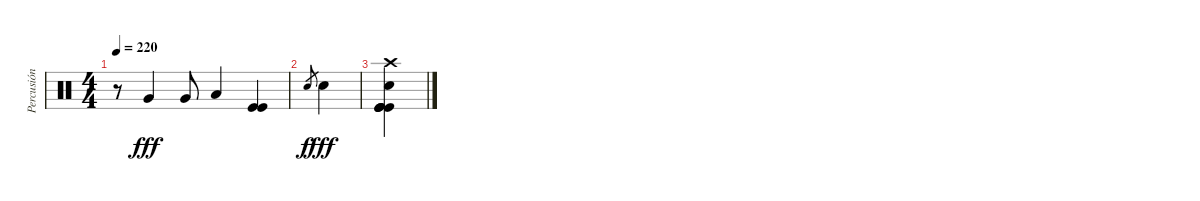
\track ("Percusión" "Percusión") {instrument percussion}
\staff {score}
\articulation defaults
\ts (4 4)
\tempo 220
\clef neutral
\ks c
r.8{dy fff} "Very Low Tom (hit)".4 "Very Low Tom (hit)".8 "Low Tom (hit)".4 ("Kick (hit)" "Kick (hit)").4 |
"Snare (hit) 2".8{gr dy f} "Snare (hit) 2".4{dy fff} |
("Kick (hit)" "Kick (hit)" "Snare (hit) 2" "Crash high (hit)" "Kick (hit)" "Kick (hit)").4
